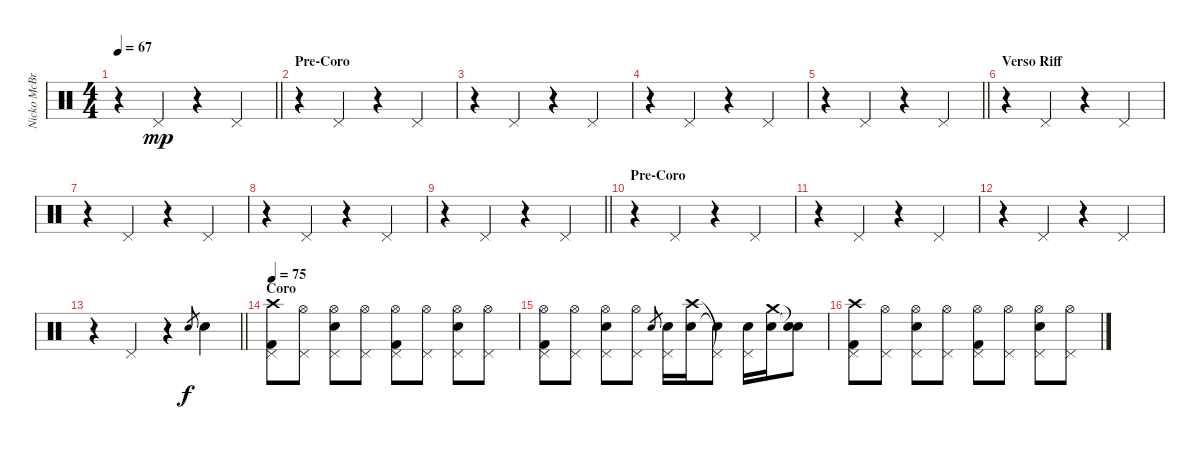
\track ("Nicko McBrain" "Nicko McBr") {instrument percussion}
\staff {score}
\articulation defaults
\ts (4 4)
\tempo 67
\clef neutral
\barLineRight lightlight
\ks c
r.4{dy mp} "Pedal Hi-Hat (hit)".4 r.4 "Pedal Hi-Hat (hit)".4 |
\section ("" "Pre-Coro")
r.4 "Pedal Hi-Hat (hit)".4 r.4 "Pedal Hi-Hat (hit)".4 |
r.4 "Pedal Hi-Hat (hit)".4 r.4 "Pedal Hi-Hat (hit)".4 |
r.4 "Pedal Hi-Hat (hit)".4 r.4 "Pedal Hi-Hat (hit)".4 |
\barLineRight lightlight
r.4 "Pedal Hi-Hat (hit)".4 r.4 "Pedal Hi-Hat (hit)".4 |
\section ("" "Verso Riff")
r.4 "Pedal Hi-Hat (hit)".4 r.4 "Pedal Hi-Hat (hit)".4 |
r.4 "Pedal Hi-Hat (hit)".4 r.4 "Pedal Hi-Hat (hit)".4 |
r.4 "Pedal Hi-Hat (hit)".4 r.4 "Pedal Hi-Hat (hit)".4 |
\barLineRight lightlight
r.4 "Pedal Hi-Hat (hit)".4 r.4 "Pedal Hi-Hat (hit)".4 |
\section ("" "Pre-Coro")
r.4 "Pedal Hi-Hat (hit)".4 r.4 "Pedal Hi-Hat (hit)".4 |
r.4 "Pedal Hi-Hat (hit)".4 r.4 "Pedal Hi-Hat (hit)".4 |
r.4 "Pedal Hi-Hat (hit)".4 r.4 "Pedal Hi-Hat (hit)".4 |
\barLineRight lightlight
r.4 "Pedal Hi-Hat (hit)".4 r.4 "Snare (hit) 2".8{gr dy f} "Snare (hit) 2".4 |
\section ("" "Coro")
\tempo 75
("Kick (hit) 2" "Pedal Hi-Hat (hit)" "Crash high (hit)").8 ("Pedal Hi-Hat (hit)" "Hi-Hat (open)").8 ("Snare (hit) 2" "Pedal Hi-Hat (hit)" "Hi-Hat (open)").8 ("Pedal Hi-Hat (hit)" "Hi-Hat (open)").8 ("Kick (hit) 2" "Pedal Hi-Hat (hit)" "Hi-Hat (open)").8 ("Pedal Hi-Hat (hit)" "Hi-Hat (open)").8 ("Snare (hit) 2" "Pedal Hi-Hat (hit)" "Hi-Hat (open)").8 ("Pedal Hi-Hat (hit)" "Hi-Hat (open)").8 |
("Kick (hit) 2" "Pedal Hi-Hat (hit)" "Hi-Hat (open)").8 ("Pedal Hi-Hat (hit)" "Hi-Hat (open)").8 ("Snare (hit) 2" "Pedal Hi-Hat (hit)" "Hi-Hat (open)").8 ("Pedal Hi-Hat (hit)" "Hi-Hat (open)").8 "Snare (hit) 2".8{gr} ("Snare (hit) 2" "Pedal Hi-Hat (hit)").16 ("Snare (hit) 2" "Crash high (hit)").16 ("Snare (hit) 2"{t} "Pedal Hi-Hat (hit)"{t}).8 ("Snare (hit) 2" "Pedal Hi-Hat (hit)").16 ("Snare (hit) 2" "Crash medium (hit)").16 ("Snare (hit)"{t} "Snare (hit)"{t}).8 |
("Kick (hit) 2" "Pedal Hi-Hat (hit)" "Crash high (hit)").8 ("Pedal Hi-Hat (hit)" "Hi-Hat (open)").8 ("Snare (hit) 2" "Pedal Hi-Hat (hit)" "Hi-Hat (open)").8 ("Pedal Hi-Hat (hit)" "Hi-Hat (open)").8 ("Kick (hit) 2" "Pedal Hi-Hat (hit)" "Hi-Hat (open)").8 ("Pedal Hi-Hat (hit)" "Hi-Hat (open)").8 ("Snare (hit) 2" "Pedal Hi-Hat (hit)" "Hi-Hat (open)").8 ("Pedal Hi-Hat (hit)" "Hi-Hat (open)").8
